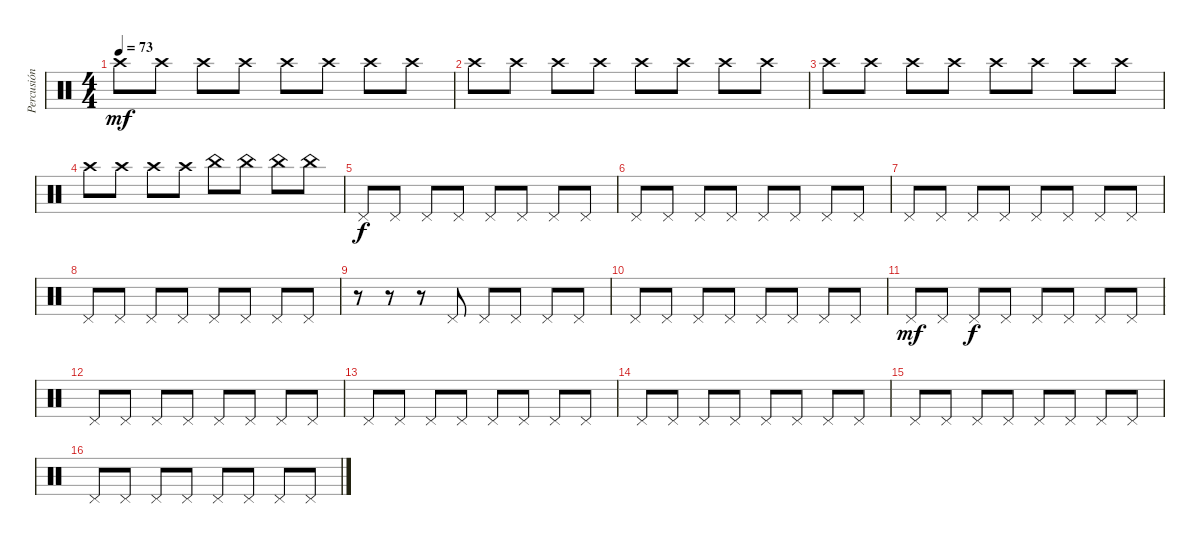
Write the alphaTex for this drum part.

\track ("Percusión" "Percusión") {instrument percussion}
\staff {score}
\articulation defaults
\ts (4 4)
\tempo 73
\clef neutral
\ks c "Crash high (hit)".8{dy mf} "Crash high (hit)".8 "Crash high (hit)".8 "Crash high (hit)".8 "Crash high (hit)".8 "Crash high (hit)".8 "Crash high (hit)".8 "Crash high (hit)".8
|
"Crash high (hit)".8 "Crash high (hit)".8 "Crash high (hit)".8 "Crash high (hit)".8 "Crash high (hit)".8 "Crash high (hit)".8 "Crash high (hit)".8 "Crash high (hit)".8 |
"Crash high (hit)".8 "Crash high (hit)".8 "Crash high (hit)".8 "Crash high (hit)".8 "Crash high (hit)".8 "Crash high (hit)".8 "Crash high (hit)".8 "Crash high (hit)".8 |
"Crash high (hit)".8 "Crash high (hit)".8 "Crash high (hit)".8 "Crash high (hit)".8 "China (hit)".8 "China (hit)".8 "China (hit)".8 "China (hit)".8 |
"Pedal Hi-Hat (hit)".8{dy f} "Pedal Hi-Hat (hit)".8 "Pedal Hi-Hat (hit)".8 "Pedal Hi-Hat (hit)".8 "Pedal Hi-Hat (hit)".8 "Pedal Hi-Hat (hit)".8 "Pedal Hi-Hat (hit)".8 "Pedal Hi-Hat (hit)".8 |
"Pedal Hi-Hat (hit)".8 "Pedal Hi-Hat (hit)".8 "Pedal Hi-Hat (hit)".8 "Pedal Hi-Hat (hit)".8 "Pedal Hi-Hat (hit)".8 "Pedal Hi-Hat (hit)".8 "Pedal Hi-Hat (hit)".8 "Pedal Hi-Hat (hit)".8 |
"Pedal Hi-Hat (hit)".8 "Pedal Hi-Hat (hit)".8 "Pedal Hi-Hat (hit)".8 "Pedal Hi-Hat (hit)".8 "Pedal Hi-Hat (hit)".8 "Pedal Hi-Hat (hit)".8 "Pedal Hi-Hat (hit)".8 "Pedal Hi-Hat (hit)".8 |
"Pedal Hi-Hat (hit)".8 "Pedal Hi-Hat (hit)".8 "Pedal Hi-Hat (hit)".8 "Pedal Hi-Hat (hit)".8 "Pedal Hi-Hat (hit)".8 "Pedal Hi-Hat (hit)".8 "Pedal Hi-Hat (hit)".8 "Pedal Hi-Hat (hit)".8 |
r.8 r.8 r.8 "Pedal Hi-Hat (hit)".8 "Pedal Hi-Hat (hit)".8 "Pedal Hi-Hat (hit)".8 "Pedal Hi-Hat (hit)".8 "Pedal Hi-Hat (hit)".8 |
"Pedal Hi-Hat (hit)".8 "Pedal Hi-Hat (hit)".8 "Pedal Hi-Hat (hit)".8 "Pedal Hi-Hat (hit)".8 "Pedal Hi-Hat (hit)".8 "Pedal Hi-Hat (hit)".8 "Pedal Hi-Hat (hit)".8 "Pedal Hi-Hat (hit)".8 |
"Pedal Hi-Hat (hit)".8{dy mf} "Pedal Hi-Hat (hit)".8 "Pedal Hi-Hat (hit)".8{dy f} "Pedal Hi-Hat (hit)".8 "Pedal Hi-Hat (hit)".8 "Pedal Hi-Hat (hit)".8 "Pedal Hi-Hat (hit)".8 "Pedal Hi-Hat (hit)".8 |
"Pedal Hi-Hat (hit)".8 "Pedal Hi-Hat (hit)".8 "Pedal Hi-Hat (hit)".8 "Pedal Hi-Hat (hit)".8 "Pedal Hi-Hat (hit)".8 "Pedal Hi-Hat (hit)".8 "Pedal Hi-Hat (hit)".8 "Pedal Hi-Hat (hit)".8 |
"Pedal Hi-Hat (hit)".8 "Pedal Hi-Hat (hit)".8 "Pedal Hi-Hat (hit)".8 "Pedal Hi-Hat (hit)".8 "Pedal Hi-Hat (hit)".8 "Pedal Hi-Hat (hit)".8 "Pedal Hi-Hat (hit)".8 "Pedal Hi-Hat (hit)".8 |
"Pedal Hi-Hat (hit)".8 "Pedal Hi-Hat (hit)".8 "Pedal Hi-Hat (hit)".8 "Pedal Hi-Hat (hit)".8 "Pedal Hi-Hat (hit)".8 "Pedal Hi-Hat (hit)".8 "Pedal Hi-Hat (hit)".8 "Pedal Hi-Hat (hit)".8 |
"Pedal Hi-Hat (hit)".8 "Pedal Hi-Hat (hit)".8 "Pedal Hi-Hat (hit)".8 "Pedal Hi-Hat (hit)".8 "Pedal Hi-Hat (hit)".8 "Pedal Hi-Hat (hit)".8 "Pedal Hi-Hat (hit)".8 "Pedal Hi-Hat (hit)".8 |
"Pedal Hi-Hat (hit)".8 "Pedal Hi-Hat (hit)".8 "Pedal Hi-Hat (hit)".8 "Pedal Hi-Hat (hit)".8 "Pedal Hi-Hat (hit)".8 "Pedal Hi-Hat (hit)".8 "Pedal Hi-Hat (hit)".8 "Pedal Hi-Hat (hit)".8
